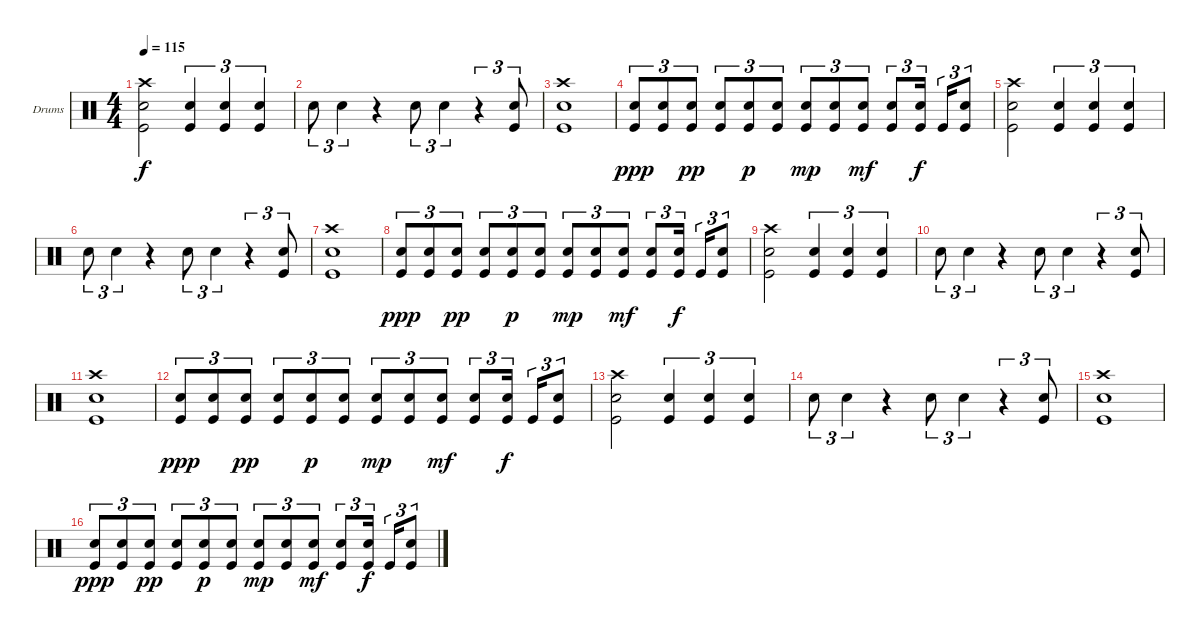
\bracketExtendMode groupsimilarinstruments
\firstSystemTrackNameOrientation horizontal
\otherSystemsTrackNameOrientation horizontal
\track ("Kaleb - Drums" "Drums") {instrument percussion}
\staff {score}
\articulation defaults
\ts (4 4)
\tempo 115
\clef neutral
\ks c
("Crash high (hit)" "Kick (hit)" "Snare (hit) 2").2{dy f} ("Snare (hit) 2" "Kick (hit)").4{tu (3 2)} ("Snare (hit) 2" "Kick (hit)").4{tu (3 2)} ("Snare (hit) 2" "Kick (hit)").4{tu (3 2)} |
"Snare (hit) 2".8{tu (3 2)} "Snare (hit) 2".4{tu (3 2)} r.4 "Snare (hit) 2".8{tu (3 2)} "Snare (hit) 2".4{tu (3 2)} r.4{tu (3 2)} ("Snare (hit) 2" "Kick (hit)").8{tu (3 2)} |
("Crash high (hit)" "Kick (hit)" "Snare (hit) 2").1 |
("Kick (hit)" "Snare (hit) 2").8{tu (3 2) dy ppp} ("Kick (hit)" "Snare (hit) 2").8{tu (3 2)} ("Kick (hit)" "Snare (hit) 2").8{tu (3 2) dy pp} ("Kick (hit)" "Snare (hit) 2").8{tu (3 2)} ("Kick (hit)" "Snare (hit) 2").8{tu (3 2) dy p} ("Kick (hit)" "Snare (hit) 2").8{tu (3 2)} ("Kick (hit)" "Snare (hit) 2").8{tu (3 2) dy mp} ("Kick (hit)" "Snare (hit) 2").8{tu (3 2)} ("Kick (hit)" "Snare (hit) 2").8{tu (3 2) dy mf} ("Kick (hit)" "Snare (hit) 2").8{tu (3 2)} ("Kick (hit)" "Snare (hit) 2").16{tu (3 2) dy f} "Kick (hit)".16{tu (3 2)} ("Kick (hit)" "Snare (hit) 2").8{tu (3 2)} |
("Crash high (hit)" "Kick (hit)" "Snare (hit) 2").2 ("Snare (hit) 2" "Kick (hit)").4{tu (3 2)} ("Snare (hit) 2" "Kick (hit)").4{tu (3 2)} ("Snare (hit) 2" "Kick (hit)").4{tu (3 2)} |
"Snare (hit) 2".8{tu (3 2)} "Snare (hit) 2".4{tu (3 2)} r.4 "Snare (hit) 2".8{tu (3 2)} "Snare (hit) 2".4{tu (3 2)} r.4{tu (3 2)} ("Snare (hit) 2" "Kick (hit)").8{tu (3 2)} |
("Crash high (hit)" "Kick (hit)" "Snare (hit) 2").1 |
("Kick (hit)" "Snare (hit) 2").8{tu (3 2) dy ppp} ("Kick (hit)" "Snare (hit) 2").8{tu (3 2)} ("Kick (hit)" "Snare (hit) 2").8{tu (3 2) dy pp} ("Kick (hit)" "Snare (hit) 2").8{tu (3 2)} ("Kick (hit)" "Snare (hit) 2").8{tu (3 2) dy p} ("Kick (hit)" "Snare (hit) 2").8{tu (3 2)} ("Kick (hit)" "Snare (hit) 2").8{tu (3 2) dy mp} ("Kick (hit)" "Snare (hit) 2").8{tu (3 2)} ("Kick (hit)" "Snare (hit) 2").8{tu (3 2) dy mf} ("Kick (hit)" "Snare (hit) 2").8{tu (3 2)} ("Kick (hit)" "Snare (hit) 2").16{tu (3 2) dy f} "Kick (hit)".16{tu (3 2)} ("Kick (hit)" "Snare (hit) 2").8{tu (3 2)} |
("Crash high (hit)" "Kick (hit)" "Snare (hit) 2").2 ("Snare (hit) 2" "Kick (hit)").4{tu (3 2)} ("Snare (hit) 2" "Kick (hit)").4{tu (3 2)} ("Snare (hit) 2" "Kick (hit)").4{tu (3 2)} |
"Snare (hit) 2".8{tu (3 2)} "Snare (hit) 2".4{tu (3 2)} r.4 "Snare (hit) 2".8{tu (3 2)} "Snare (hit) 2".4{tu (3 2)} r.4{tu (3 2)} ("Snare (hit) 2" "Kick (hit)").8{tu (3 2)} |
("Crash high (hit)" "Kick (hit)" "Snare (hit) 2").1 |
("Kick (hit)" "Snare (hit) 2").8{tu (3 2) dy ppp} ("Kick (hit)" "Snare (hit) 2").8{tu (3 2)} ("Kick (hit)" "Snare (hit) 2").8{tu (3 2) dy pp} ("Kick (hit)" "Snare (hit) 2").8{tu (3 2)} ("Kick (hit)" "Snare (hit) 2").8{tu (3 2) dy p} ("Kick (hit)" "Snare (hit) 2").8{tu (3 2)} ("Kick (hit)" "Snare (hit) 2").8{tu (3 2) dy mp} ("Kick (hit)" "Snare (hit) 2").8{tu (3 2)} ("Kick (hit)" "Snare (hit) 2").8{tu (3 2) dy mf} ("Kick (hit)" "Snare (hit) 2").8{tu (3 2)} ("Kick (hit)" "Snare (hit) 2").16{tu (3 2) dy f} "Kick (hit)".16{tu (3 2)} ("Kick (hit)" "Snare (hit) 2").8{tu (3 2)} |
("Crash high (hit)" "Kick (hit)" "Snare (hit) 2").2 ("Snare (hit) 2" "Kick (hit)").4{tu (3 2)} ("Snare (hit) 2" "Kick (hit)").4{tu (3 2)} ("Snare (hit) 2" "Kick (hit)").4{tu (3 2)} |
"Snare (hit) 2".8{tu (3 2)} "Snare (hit) 2".4{tu (3 2)} r.4 "Snare (hit) 2".8{tu (3 2)} "Snare (hit) 2".4{tu (3 2)} r.4{tu (3 2)} ("Snare (hit) 2" "Kick (hit)").8{tu (3 2)} |
("Crash high (hit)" "Kick (hit)" "Snare (hit) 2").1 |
("Kick (hit)" "Snare (hit) 2").8{tu (3 2) dy ppp} ("Kick (hit)" "Snare (hit) 2").8{tu (3 2)} ("Kick (hit)" "Snare (hit) 2").8{tu (3 2) dy pp} ("Kick (hit)" "Snare (hit) 2").8{tu (3 2)} ("Kick (hit)" "Snare (hit) 2").8{tu (3 2) dy p} ("Kick (hit)" "Snare (hit) 2").8{tu (3 2)} ("Kick (hit)" "Snare (hit) 2").8{tu (3 2) dy mp} ("Kick (hit)" "Snare (hit) 2").8{tu (3 2)} ("Kick (hit)" "Snare (hit) 2").8{tu (3 2) dy mf} ("Kick (hit)" "Snare (hit) 2").8{tu (3 2)} ("Kick (hit)" "Snare (hit) 2").16{tu (3 2) dy f} "Kick (hit)".16{tu (3 2)} ("Kick (hit)" "Snare (hit) 2").8{tu (3 2)}
